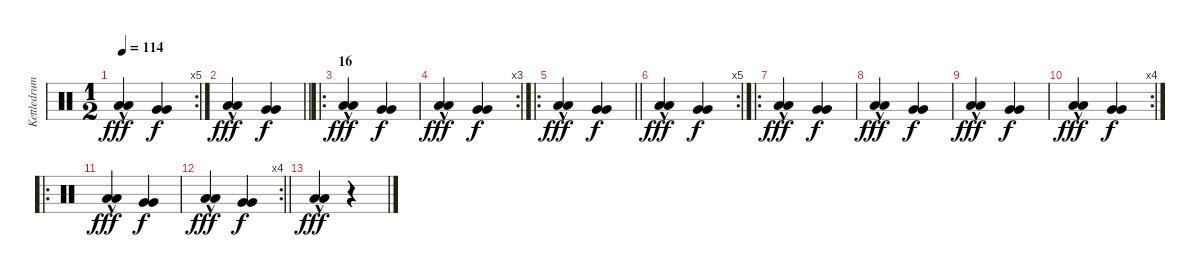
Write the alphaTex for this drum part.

\track ("Kettledrum" "Kettledrum") {instrument percussion}
\staff {score}
\articulation defaults
\rc 5
\ts (1 2)
\tempo 114
\clef neutral
\ks c
("Low Floor Tom (hit)"{hac} "Low Floor Tom (hit)"{hac}).4{dy fff} ("Very Low Tom (hit)" "Very Low Tom (hit)").4{dy f} |
\barLineRight lightlight
("Low Floor Tom (hit)"{hac} "Low Floor Tom (hit)"{hac}).4{dy fff} ("Very Low Tom (hit)" "Very Low Tom (hit)").4{dy f} |
\ro
\section ("" "16")
("Low Floor Tom (hit)"{hac} "Low Floor Tom (hit)"{hac}).4{dy fff} ("Very Low Tom (hit)" "Very Low Tom (hit)").4{dy f} |
\rc 3
("Low Floor Tom (hit)"{hac} "Low Floor Tom (hit)"{hac}).4{dy fff} ("Very Low Tom (hit)" "Very Low Tom (hit)").4{dy f} |
\ro
\barLineRight lightlight
("Low Floor Tom (hit)"{hac} "Low Floor Tom (hit)"{hac}).4{dy fff} ("Very Low Tom (hit)" "Very Low Tom (hit)").4{dy f} |
\rc 5
("Low Floor Tom (hit)"{hac} "Low Floor Tom (hit)"{hac}).4{dy fff} ("Very Low Tom (hit)" "Very Low Tom (hit)").4{dy f} |
\ro
("Low Floor Tom (hit)"{hac} "Low Floor Tom (hit)"{hac}).4{dy fff} ("Very Low Tom (hit)" "Very Low Tom (hit)").4{dy f} |
("Low Floor Tom (hit)"{hac} "Low Floor Tom (hit)"{hac}).4{dy fff} ("Very Low Tom (hit)" "Very Low Tom (hit)").4{dy f} |
("Low Floor Tom (hit)"{hac} "Low Floor Tom (hit)"{hac}).4{dy fff} ("Very Low Tom (hit)" "Very Low Tom (hit)").4{dy f} |
\rc 4
("Low Floor Tom (hit)"{hac} "Low Floor Tom (hit)"{hac}).4{dy fff} ("Very Low Tom (hit)" "Very Low Tom (hit)").4{dy f} |
\ro
("Low Floor Tom (hit)"{hac} "Low Floor Tom (hit)"{hac}).4{dy fff} ("Very Low Tom (hit)" "Very Low Tom (hit)").4{dy f} |
\rc 4
\barLineRight lightlight
("Low Floor Tom (hit)"{hac} "Low Floor Tom (hit)"{hac}).4{dy fff} ("Very Low Tom (hit)" "Very Low Tom (hit)").4{dy f} |
("Low Floor Tom (hit)"{hac} "Low Floor Tom (hit)"{hac}).4{dy fff} r.4
